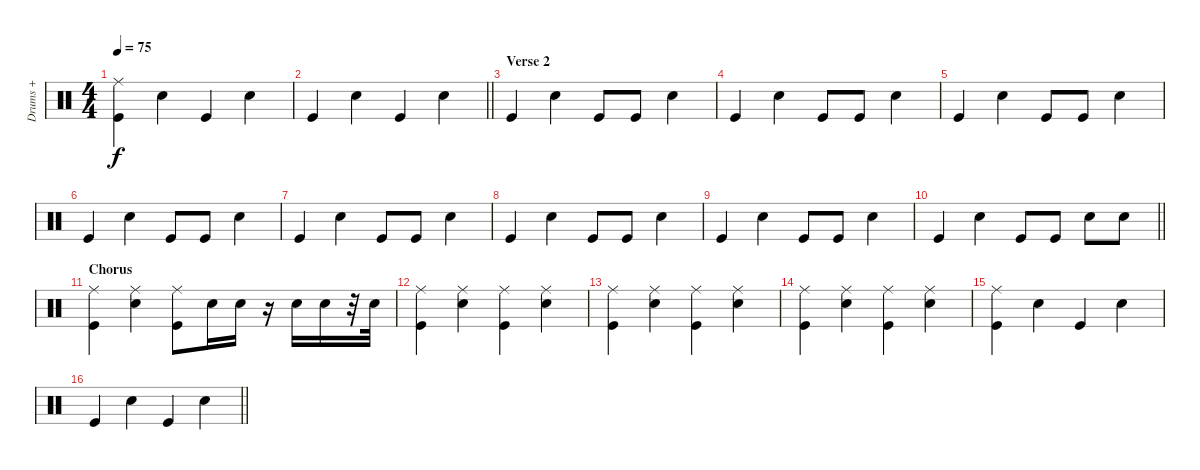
\track ("Drums +" "Drums +") {instrument percussion}
\staff {score}
\articulation defaults
\ts (4 4)
\tempo 75
\clef neutral
\ks c
("Ride (middle)" "Kick (hit)").4{dy f} "Snare (hit) 2".4 "Kick (hit)".4 "Snare (hit) 2".4 |
\barLineRight lightlight "Kick (hit)".4 "Snare (hit) 2".4 "Kick (hit)".4 "Snare (hit) 2".4
|
\section ("" "Verse 2")
"Kick (hit)".4 "Snare (hit) 2".4 "Kick (hit)".8 "Kick (hit)".8 "Snare (hit) 2".4 |
"Kick (hit)".4 "Snare (hit) 2".4 "Kick (hit)".8 "Kick (hit)".8 "Snare (hit) 2".4 |
"Kick (hit)".4 "Snare (hit) 2".4 "Kick (hit)".8 "Kick (hit)".8 "Snare (hit) 2".4 |
"Kick (hit)".4 "Snare (hit) 2".4 "Kick (hit)".8 "Kick (hit)".8 "Snare (hit) 2".4 |
"Kick (hit)".4 "Snare (hit) 2".4 "Kick (hit)".8 "Kick (hit)".8 "Snare (hit) 2".4 |
"Kick (hit)".4 "Snare (hit) 2".4 "Kick (hit)".8 "Kick (hit)".8 "Snare (hit) 2".4 |
"Kick (hit)".4 "Snare (hit) 2".4 "Kick (hit)".8 "Kick (hit)".8 "Snare (hit) 2".4 |
\barLineRight lightlight "Kick (hit)".4 "Snare (hit) 2".4 "Kick (hit)".8 "Kick (hit)".8 "Snare (hit) 2".8 "Snare (hit) 2".8
|
\section ("" "Chorus")
("Ride (middle)" "Kick (hit)").4 ("Ride (middle)" "Snare (hit) 2").4 ("Ride (middle)" "Kick (hit)").8 "Snare (hit) 2".16 "Snare (hit) 2".16 r.16 "Snare (hit) 2".16 "Snare (hit) 2".16 r.32 "Snare (hit) 2".32 |
("Ride (middle)" "Kick (hit)").4 ("Ride (middle)" "Snare (hit) 2").4 ("Ride (middle)" "Kick (hit)").4 ("Ride (middle)" "Snare (hit) 2").4 |
("Ride (middle)" "Kick (hit)").4 ("Ride (middle)" "Snare (hit) 2").4 ("Ride (middle)" "Kick (hit)").4 ("Ride (middle)" "Snare (hit) 2").4 |
("Ride (middle)" "Kick (hit)").4 ("Ride (middle)" "Snare (hit) 2").4 ("Ride (middle)" "Kick (hit)").4 ("Ride (middle)" "Snare (hit) 2").4 |
("Ride (middle)" "Kick (hit)").4 "Snare (hit) 2".4 "Kick (hit)".4 "Snare (hit) 2".4 |
\barLineRight lightlight "Kick (hit)".4 "Snare (hit) 2".4 "Kick (hit)".4 "Snare (hit) 2".4
